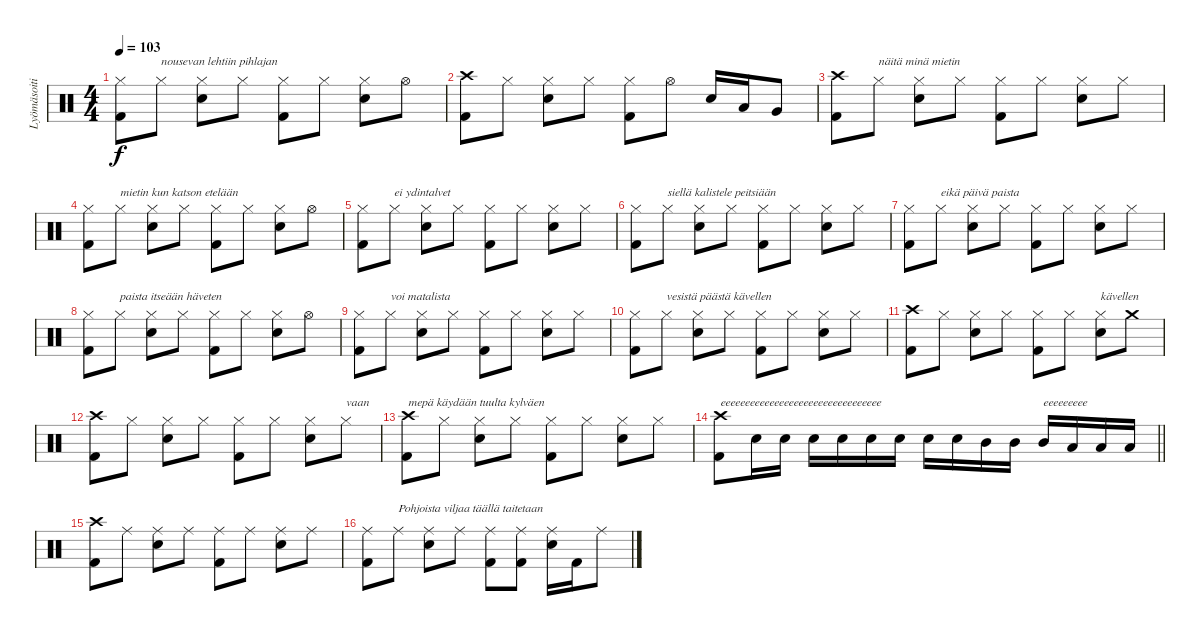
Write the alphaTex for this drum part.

\track ("Lyömäsoitin" "Lyömäsoiti") {instrument percussion}
\staff {score}
\articulation defaults
\ts (4 4)
\tempo 103
\clef neutral
\ks c
("Hi-Hat (closed)" "Kick (hit) 2").8{dy f} "Hi-Hat (closed)".8{txt "nousevan lehtiin pihlajan"} ("Hi-Hat (closed)" "Snare (hit) 2").8 "Hi-Hat (closed)".8 ("Hi-Hat (closed)" "Kick (hit) 2").8 "Hi-Hat (closed)".8 ("Hi-Hat (closed)" "Snare (hit) 2").8 "Hi-Hat (open)".8 |
("Crash high (hit)" "Kick (hit) 2").8 "Hi-Hat (closed)".8 ("Hi-Hat (closed)" "Snare (hit) 2").8 "Hi-Hat (closed)".8 ("Hi-Hat (closed)" "Kick (hit) 2").8 "Hi-Hat (open)".8 "Snare (hit) 2".16 "Low Tom (hit)".16 "Very Low Tom (hit)".8 |
("Crash high (hit)" "Kick (hit) 2").8 "Hi-Hat (closed)".8{txt "näitä minä mietin"} ("Hi-Hat (closed)" "Snare (hit) 2").8 "Hi-Hat (closed)".8 ("Hi-Hat (closed)" "Kick (hit) 2").8 "Hi-Hat (closed)".8 ("Hi-Hat (closed)" "Snare (hit) 2").8 "Hi-Hat (closed)".8 |
("Hi-Hat (closed)" "Kick (hit) 2").8 "Hi-Hat (closed)".8{txt "mietin kun katson etelään"} ("Hi-Hat (closed)" "Snare (hit) 2").8 "Hi-Hat (closed)".8 ("Hi-Hat (closed)" "Kick (hit) 2").8 "Hi-Hat (closed)".8 ("Hi-Hat (closed)" "Snare (hit) 2").8 "Hi-Hat (open)".8 |
("Hi-Hat (closed)" "Kick (hit) 2").8 "Hi-Hat (closed)".8{txt "ei ydintalvet"} ("Hi-Hat (closed)" "Snare (hit) 2").8 "Hi-Hat (closed)".8 ("Hi-Hat (closed)" "Kick (hit) 2").8 "Hi-Hat (closed)".8 ("Hi-Hat (closed)" "Snare (hit) 2").8 "Hi-Hat (closed)".8 |
("Hi-Hat (closed)" "Kick (hit) 2").8 "Hi-Hat (closed)".8{txt "siellä kalistele peitsiään"} ("Hi-Hat (closed)" "Snare (hit) 2").8 "Hi-Hat (closed)".8 ("Hi-Hat (closed)" "Kick (hit) 2").8 "Hi-Hat (closed)".8 ("Hi-Hat (closed)" "Snare (hit) 2").8 "Hi-Hat (closed)".8 |
("Hi-Hat (closed)" "Kick (hit) 2").8 "Hi-Hat (closed)".8{txt "eikä päivä paista"} ("Hi-Hat (closed)" "Snare (hit) 2").8 "Hi-Hat (closed)".8 ("Hi-Hat (closed)" "Kick (hit) 2").8 "Hi-Hat (closed)".8 ("Hi-Hat (closed)" "Snare (hit) 2").8 "Hi-Hat (closed)".8 |
("Hi-Hat (closed)" "Kick (hit) 2").8 "Hi-Hat (closed)".8{txt "paista itseään häveten"} ("Hi-Hat (closed)" "Snare (hit) 2").8 "Hi-Hat (closed)".8 ("Hi-Hat (closed)" "Kick (hit) 2").8 "Hi-Hat (closed)".8 ("Hi-Hat (closed)" "Snare (hit) 2").8 "Hi-Hat (open)".8 |
("Hi-Hat (closed)" "Kick (hit) 2").8 "Hi-Hat (closed)".8{txt "voi matalista"} ("Hi-Hat (closed)" "Snare (hit) 2").8 "Hi-Hat (closed)".8 ("Hi-Hat (closed)" "Kick (hit) 2").8 "Hi-Hat (closed)".8 ("Hi-Hat (closed)" "Snare (hit) 2").8 "Hi-Hat (closed)".8 |
("Hi-Hat (closed)" "Kick (hit) 2").8 "Hi-Hat (closed)".8{txt "vesistä päästä kävellen"} ("Hi-Hat (closed)" "Snare (hit) 2").8 "Hi-Hat (closed)".8 ("Hi-Hat (closed)" "Kick (hit) 2").8 "Hi-Hat (closed)".8 ("Hi-Hat (closed)" "Snare (hit) 2").8 "Hi-Hat (closed)".8 |
("Crash high (hit)" "Kick (hit) 2").8 "Hi-Hat (closed)".8 ("Hi-Hat (closed)" "Snare (hit) 2").8 "Hi-Hat (closed)".8 ("Hi-Hat (closed)" "Kick (hit) 2").8 "Hi-Hat (closed)".8 ("Hi-Hat (closed)" "Snare (hit) 2").8{txt "kävellen"} "Crash medium (hit)".8 |
("Crash high (hit)" "Kick (hit) 2").8 "Hi-Hat (closed)".8 ("Hi-Hat (closed)" "Snare (hit) 2").8 "Hi-Hat (closed)".8 ("Hi-Hat (closed)" "Kick (hit) 2").8 "Hi-Hat (closed)".8 ("Hi-Hat (closed)" "Snare (hit) 2").8 "Hi-Hat (closed)".8{txt "vaan "} |
("Crash high (hit)" "Kick (hit) 2").8{txt "mepä käydään tuulta kylväen"} "Hi-Hat (closed)".8 ("Hi-Hat (closed)" "Snare (hit) 2").8 "Hi-Hat (closed)".8 ("Hi-Hat (closed)" "Kick (hit) 2").8 "Hi-Hat (closed)".8 ("Hi-Hat (closed)" "Snare (hit) 2").8 "Hi-Hat (closed)".8 |
\barLineRight lightlight
("Crash high (hit)" "Kick (hit) 2").8{txt "eeeeeeeeeeeeeeeeeeeeeeeeeeeeeeeee"} "Snare (hit) 2".16 "Snare (hit) 2".16 "Snare (hit) 2".16 "Snare (hit) 2".16 "Snare (hit) 2".16 "Snare (hit) 2".16 "Snare (hit) 2".16 "Snare (hit) 2".16 "Mid Tom (hit)".16 "Mid Tom (hit)".16 "Mid Tom (hit)".16{txt "eeeeeeeee"} "Low Tom (hit)".16 "Low Tom (hit)".16 "Low Tom (hit)".16 |
("Crash high (hit)" "Kick (hit) 2").8 "Ride (middle)".8 ("Ride (middle)" "Snare (hit) 2").8 "Ride (middle)".8 ("Ride (middle)" "Kick (hit) 2").8 "Ride (middle)".8 ("Ride (middle)" "Snare (hit) 2").8 "Ride (middle)".8 |
("Ride (middle)" "Kick (hit) 2").8 "Ride (middle)".8{txt "Pohjoista viljaa täällä taitetaan"} ("Ride (middle)" "Snare (hit) 2").8 "Ride (middle)".8 ("Ride (middle)" "Kick (hit) 2").8 ("Ride (middle)" "Kick (hit) 2").8 ("Ride (middle)" "Snare (hit) 2").16 "Kick (hit) 2".16 "Ride (middle)".8
